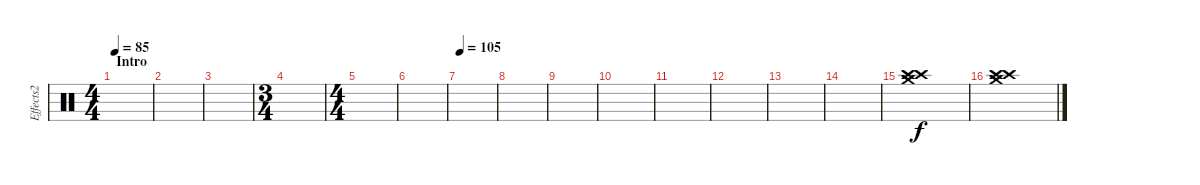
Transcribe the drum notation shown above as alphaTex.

\track ("Effects2" "Effects2") {instrument percussion}
\staff {score}
\articulation defaults
\ts (4 4)
\section ("" "Intro")
\tempo 85
\clef neutral
\ks c
|
|
|
\ts (3 4)
|
\ts (4 4)
|
|
\tempo 105
|
|
|
|
|
|
|
|
("Crash high (hit)" "Crash medium (hit)" "Crash high (hit)").1 |
("Crash high (hit)" "Crash medium (hit)" "Crash high (hit)").1
